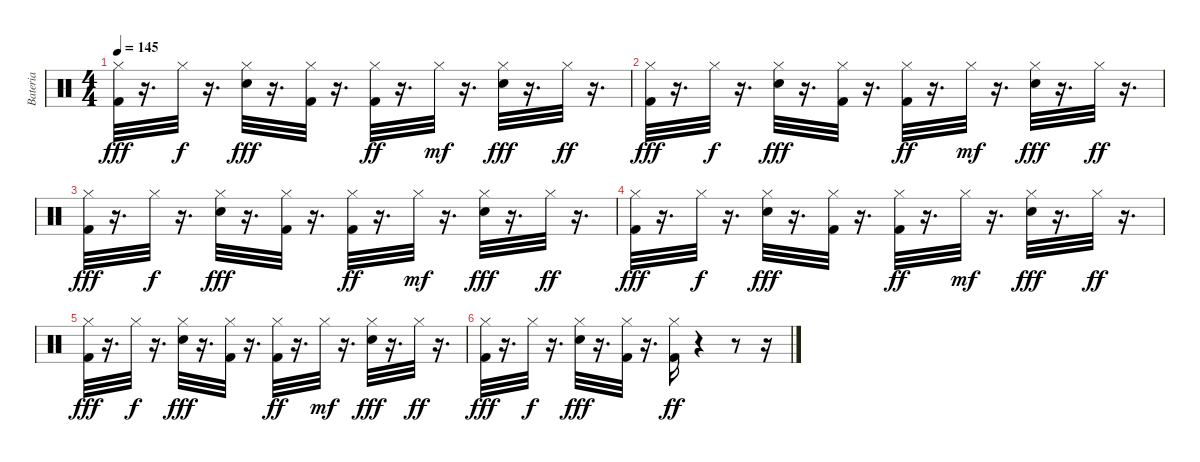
\track ("Bateria" "Bateria") {instrument percussion}
\staff {score}
\articulation defaults
\ts (4 4)
\tempo 145
\clef neutral
\ks c
("Kick (hit) 2" "Hi-Hat (closed)").32{dy fff} r.16{d} "Hi-Hat (closed)".32{dy f} r.16{d} ("Electric Snare (hit)" "Hi-Hat (closed)").32{dy fff} r.16{d} ("Kick (hit) 2" "Hi-Hat (closed)").32 r.16{d} ("Kick (hit) 2" "Hi-Hat (closed)").32{dy ff} r.16{d} "Hi-Hat (closed)".32{dy mf} r.16{d} ("Electric Snare (hit)" "Hi-Hat (closed)").32{dy fff} r.16{d} "Hi-Hat (closed)".32{dy ff} r.16{d} |
("Kick (hit) 2" "Hi-Hat (closed)").32{dy fff} r.16{d} "Hi-Hat (closed)".32{dy f} r.16{d} ("Electric Snare (hit)" "Hi-Hat (closed)").32{dy fff} r.16{d} ("Kick (hit) 2" "Hi-Hat (closed)").32 r.16{d} ("Kick (hit) 2" "Hi-Hat (closed)").32{dy ff} r.16{d} "Hi-Hat (closed)".32{dy mf} r.16{d} ("Electric Snare (hit)" "Hi-Hat (closed)").32{dy fff} r.16{d} "Hi-Hat (closed)".32{dy ff} r.16{d} |
("Kick (hit) 2" "Hi-Hat (closed)").32{dy fff} r.16{d} "Hi-Hat (closed)".32{dy f} r.16{d} ("Electric Snare (hit)" "Hi-Hat (closed)").32{dy fff} r.16{d} ("Kick (hit) 2" "Hi-Hat (closed)").32 r.16{d} ("Kick (hit) 2" "Hi-Hat (closed)").32{dy ff} r.16{d} "Hi-Hat (closed)".32{dy mf} r.16{d} ("Electric Snare (hit)" "Hi-Hat (closed)").32{dy fff} r.16{d} "Hi-Hat (closed)".32{dy ff} r.16{d} |
("Kick (hit) 2" "Hi-Hat (closed)").32{dy fff} r.16{d} "Hi-Hat (closed)".32{dy f} r.16{d} ("Electric Snare (hit)" "Hi-Hat (closed)").32{dy fff} r.16{d} ("Kick (hit) 2" "Hi-Hat (closed)").32 r.16{d} ("Kick (hit) 2" "Hi-Hat (closed)").32{dy ff} r.16{d} "Hi-Hat (closed)".32{dy mf} r.16{d} ("Electric Snare (hit)" "Hi-Hat (closed)").32{dy fff} r.16{d} "Hi-Hat (closed)".32{dy ff} r.16{d} |
("Kick (hit) 2" "Hi-Hat (closed)").32{dy fff} r.16{d} "Hi-Hat (closed)".32{dy f} r.16{d} ("Electric Snare (hit)" "Hi-Hat (closed)").32{dy fff} r.16{d} ("Kick (hit) 2" "Hi-Hat (closed)").32 r.16{d} ("Kick (hit) 2" "Hi-Hat (closed)").32{dy ff} r.16{d} "Hi-Hat (closed)".32{dy mf} r.16{d} ("Electric Snare (hit)" "Hi-Hat (closed)").32{dy fff} r.16{d} "Hi-Hat (closed)".32{dy ff} r.16{d} |
("Kick (hit) 2" "Hi-Hat (closed)").32{dy fff} r.16{d} "Hi-Hat (closed)".32{dy f} r.16{d} ("Electric Snare (hit)" "Hi-Hat (closed)").32{dy fff} r.16{d} ("Kick (hit) 2" "Hi-Hat (closed)").32 r.16{d} ("Kick (hit) 2" "Hi-Hat (closed)").16{dy ff} r.4 r.8 r.16
